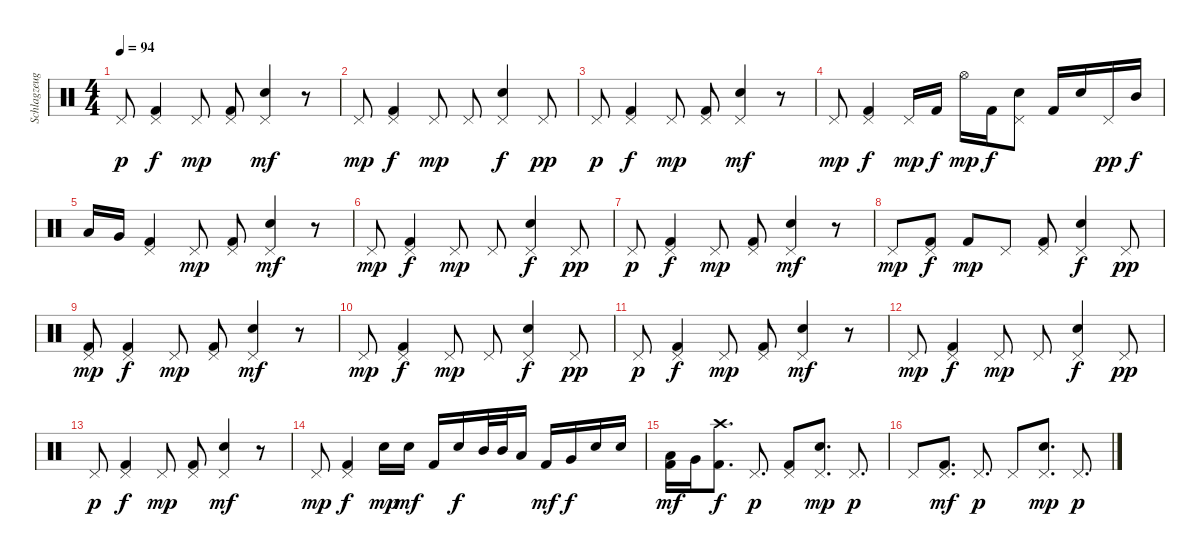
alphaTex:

\track ("Schlagzeug" "Schlagzeug") {instrument percussion}
\staff {score}
\articulation defaults
\ts (4 4)
\tempo 94
\clef neutral
\ks c "Pedal Hi-Hat (hit)".8{dy p}
("Kick (hit) 2" "Pedal Hi-Hat (hit)").4{dy f} "Pedal Hi-Hat (hit)".8{dy mp} ("Kick (hit) 2" "Pedal Hi-Hat (hit)").8 ("Electric Snare (hit)" "Pedal Hi-Hat (hit)").4{dy mf} r.8 |
"Pedal Hi-Hat (hit)".8{dy mp} ("Kick (hit) 2" "Pedal Hi-Hat (hit)").4{dy f} "Pedal Hi-Hat (hit)".8{dy mp} "Pedal Hi-Hat (hit)".8 ("Electric Snare (hit)" "Pedal Hi-Hat (hit)").4{dy f} "Pedal Hi-Hat (hit)".8{dy pp} |
"Pedal Hi-Hat (hit)".8{dy p} ("Kick (hit) 2" "Pedal Hi-Hat (hit)").4{dy f} "Pedal Hi-Hat (hit)".8{dy mp} ("Kick (hit) 2" "Pedal Hi-Hat (hit)").8 ("Electric Snare (hit)" "Pedal Hi-Hat (hit)").4{dy mf} r.8 |
"Pedal Hi-Hat (hit)".8{dy mp} ("Kick (hit) 2" "Pedal Hi-Hat (hit)").4{dy f} "Pedal Hi-Hat (hit)".16{dy mp} "Kick (hit) 2".16{dy f} "Hi-Hat (open)".16{dy mp} "Kick (hit) 2".16{dy f} ("Pedal Hi-Hat (hit)" "Electric Snare (hit)").8 "Kick (hit) 2".16 "Electric Snare (hit)".16 "Pedal Hi-Hat (hit)".16{dy pp} "Mid Tom (hit)".16{dy f} |
"Low Tom (hit)".16 "Very Low Tom (hit)".16 ("Kick (hit) 2" "Pedal Hi-Hat (hit)").4 "Pedal Hi-Hat (hit)".8{dy mp} ("Kick (hit) 2" "Pedal Hi-Hat (hit)").8 ("Electric Snare (hit)" "Pedal Hi-Hat (hit)").4{dy mf} r.8 |
"Pedal Hi-Hat (hit)".8{dy mp} ("Kick (hit) 2" "Pedal Hi-Hat (hit)").4{dy f} "Pedal Hi-Hat (hit)".8{dy mp} "Pedal Hi-Hat (hit)".8 ("Electric Snare (hit)" "Pedal Hi-Hat (hit)").4{dy f} "Pedal Hi-Hat (hit)".8{dy pp} |
"Pedal Hi-Hat (hit)".8{dy p} ("Kick (hit) 2" "Pedal Hi-Hat (hit)").4{dy f} "Pedal Hi-Hat (hit)".8{dy mp} ("Kick (hit) 2" "Pedal Hi-Hat (hit)").8 ("Electric Snare (hit)" "Pedal Hi-Hat (hit)").4{dy mf} r.8 |
"Pedal Hi-Hat (hit)".8{dy mp} ("Pedal Hi-Hat (hit)" "Kick (hit) 2").8{dy f} "Kick (hit) 2".8{dy mp} "Pedal Hi-Hat (hit)".8 ("Kick (hit) 2" "Pedal Hi-Hat (hit)").8 ("Electric Snare (hit)" "Pedal Hi-Hat (hit)").4{dy f} "Pedal Hi-Hat (hit)".8{dy pp} |
("Pedal Hi-Hat (hit)" "Kick (hit) 2").8{dy mp} ("Kick (hit) 2" "Pedal Hi-Hat (hit)").4{dy f} "Pedal Hi-Hat (hit)".8{dy mp} ("Kick (hit) 2" "Pedal Hi-Hat (hit)").8 ("Electric Snare (hit)" "Pedal Hi-Hat (hit)").4{dy mf} r.8 |
"Pedal Hi-Hat (hit)".8{dy mp} ("Kick (hit) 2" "Pedal Hi-Hat (hit)").4{dy f} "Pedal Hi-Hat (hit)".8{dy mp} "Pedal Hi-Hat (hit)".8 ("Electric Snare (hit)" "Pedal Hi-Hat (hit)").4{dy f} "Pedal Hi-Hat (hit)".8{dy pp} |
"Pedal Hi-Hat (hit)".8{dy p} ("Kick (hit) 2" "Pedal Hi-Hat (hit)").4{dy f} "Pedal Hi-Hat (hit)".8{dy mp} ("Kick (hit) 2" "Pedal Hi-Hat (hit)").8 ("Electric Snare (hit)" "Pedal Hi-Hat (hit)").4{dy mf} r.8 |
"Pedal Hi-Hat (hit)".8{dy mp} ("Kick (hit) 2" "Pedal Hi-Hat (hit)").4{dy f} "Pedal Hi-Hat (hit)".8{dy mp} "Pedal Hi-Hat (hit)".8 ("Electric Snare (hit)" "Pedal Hi-Hat (hit)").4{dy f} "Pedal Hi-Hat (hit)".8{dy pp} |
"Pedal Hi-Hat (hit)".8{dy p} ("Kick (hit) 2" "Pedal Hi-Hat (hit)").4{dy f} "Pedal Hi-Hat (hit)".8{dy mp} ("Kick (hit) 2" "Pedal Hi-Hat (hit)").8 ("Electric Snare (hit)" "Pedal Hi-Hat (hit)").4{dy mf} r.8 |
"Pedal Hi-Hat (hit)".8{dy mp} ("Pedal Hi-Hat (hit)" "Kick (hit) 2").4{dy f} "Electric Snare (hit)".16{dy mp} "Electric Snare (hit)".16{dy mf} "Kick (hit) 2".16 "Electric Snare (hit)".16{dy f} "Mid Tom (hit)".32 "Mid Tom (hit)".32 "Low Tom (hit)".16 "Kick (hit) 2".16{dy mf} "Very Low Tom (hit)".16{dy f} "Electric Snare (hit)".16 "Electric Snare (hit)".16 |
("Low Tom (hit)" "Kick (hit) 2").16{dy mf} "Very Low Tom (hit)".16 ("Crash high (hit)" "Kick (hit) 2").8{d dy f} "Pedal Hi-Hat (hit)".8{d dy p} ("Kick (hit) 2" "Pedal Hi-Hat (hit)").8 ("Electric Snare (hit)" "Pedal Hi-Hat (hit)").8{d dy mp} "Pedal Hi-Hat (hit)".8{d dy p} |
"Pedal Hi-Hat (hit)".8 ("Kick (hit) 2" "Pedal Hi-Hat (hit)").8{d dy mf} "Pedal Hi-Hat (hit)".8{d dy p} "Pedal Hi-Hat (hit)".8 ("Electric Snare (hit)" "Pedal Hi-Hat (hit)").8{d dy mp} "Pedal Hi-Hat (hit)".8{d dy p}
